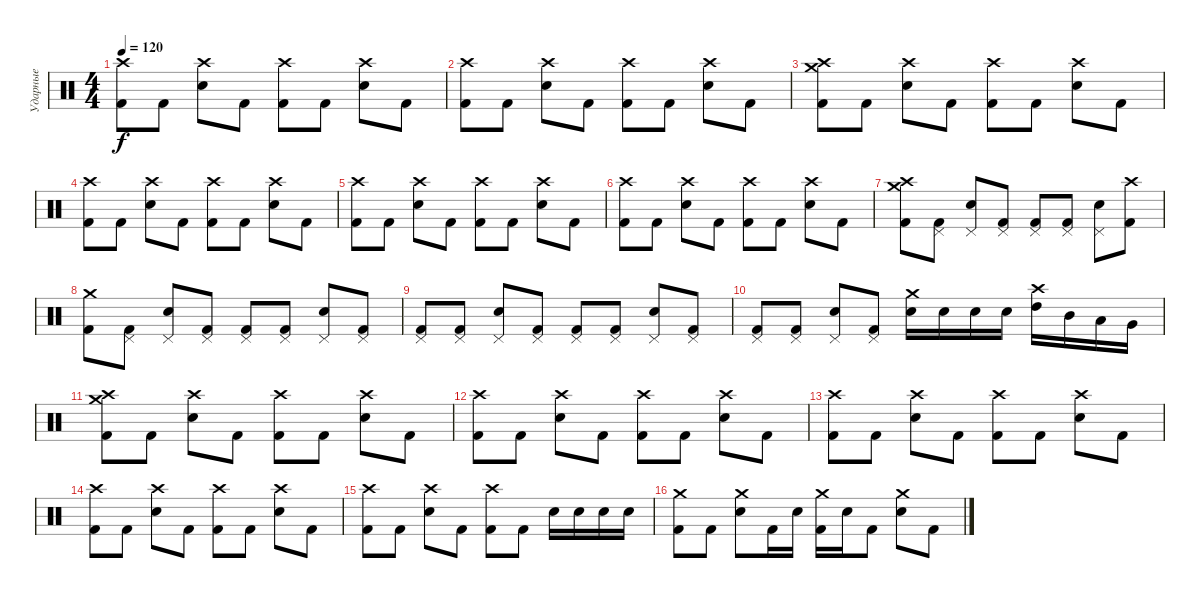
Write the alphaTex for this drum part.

\track ("Ударные" "Ударные") {instrument percussion}
\staff {score}
\articulation defaults
\ts (4 4)
\tempo 120
\clef neutral
\ks c
("Crash high (hit)" "Kick (hit) 2").8{dy f} "Kick (hit) 2".8 ("Crash high (hit)" "Electric Snare (hit)").8 "Kick (hit) 2".8 ("Crash high (hit)" "Kick (hit) 2").8 "Kick (hit) 2".8 ("Crash high (hit)" "Electric Snare (hit)").8 "Kick (hit) 2".8 |
("Crash high (hit)" "Kick (hit) 2").8 "Kick (hit) 2".8 ("Crash high (hit)" "Electric Snare (hit)").8 "Kick (hit) 2".8 ("Crash high (hit)" "Kick (hit) 2").8 "Kick (hit) 2".8 ("Crash high (hit)" "Electric Snare (hit)").8 "Kick (hit) 2".8 |
("Crash medium (hit)" "Crash high (hit)" "Kick (hit) 2").8 "Kick (hit) 2".8 ("Crash high (hit)" "Electric Snare (hit)").8 "Kick (hit) 2".8 ("Crash high (hit)" "Kick (hit) 2").8 "Kick (hit) 2".8 ("Crash high (hit)" "Electric Snare (hit)").8 "Kick (hit) 2".8 |
("Crash high (hit)" "Kick (hit) 2").8 "Kick (hit) 2".8 ("Crash high (hit)" "Electric Snare (hit)").8 "Kick (hit) 2".8 ("Crash high (hit)" "Kick (hit) 2").8 "Kick (hit) 2".8 ("Crash high (hit)" "Electric Snare (hit)").8 "Kick (hit) 2".8 |
("Crash high (hit)" "Kick (hit) 2").8 "Kick (hit) 2".8 ("Crash high (hit)" "Electric Snare (hit)").8 "Kick (hit) 2".8 ("Crash high (hit)" "Kick (hit) 2").8 "Kick (hit) 2".8 ("Crash high (hit)" "Electric Snare (hit)").8 "Kick (hit) 2".8 |
("Crash high (hit)" "Kick (hit) 2").8 "Kick (hit) 2".8 ("Crash high (hit)" "Electric Snare (hit)").8 "Kick (hit) 2".8 ("Crash high (hit)" "Kick (hit) 2").8 "Kick (hit) 2".8 ("Crash high (hit)" "Electric Snare (hit)").8 "Kick (hit) 2".8 |
("Crash medium (hit)" "Crash high (hit)" "Kick (hit) 2").8 ("Pedal Hi-Hat (hit)" "Kick (hit) 2").8 ("Pedal Hi-Hat (hit)" "Electric Snare (hit)").8 ("Pedal Hi-Hat (hit)" "Kick (hit) 2").8 ("Pedal Hi-Hat (hit)" "Kick (hit) 2").8 ("Pedal Hi-Hat (hit)" "Kick (hit) 2").8 ("Pedal Hi-Hat (hit)" "Electric Snare (hit)").8 ("Crash high (hit)" "Kick (hit) 2").8 |
("Crash medium (hit)" "Kick (hit) 2").8 ("Pedal Hi-Hat (hit)" "Kick (hit) 2").8 ("Pedal Hi-Hat (hit)" "Electric Snare (hit)").8 ("Pedal Hi-Hat (hit)" "Kick (hit) 2").8 ("Pedal Hi-Hat (hit)" "Kick (hit) 2").8 ("Pedal Hi-Hat (hit)" "Kick (hit) 2").8 ("Pedal Hi-Hat (hit)" "Electric Snare (hit)").8 ("Pedal Hi-Hat (hit)" "Kick (hit) 2").8 |
("Pedal Hi-Hat (hit)" "Kick (hit) 2").8 ("Pedal Hi-Hat (hit)" "Kick (hit) 2").8 ("Pedal Hi-Hat (hit)" "Electric Snare (hit)").8 ("Pedal Hi-Hat (hit)" "Kick (hit) 2").8 ("Pedal Hi-Hat (hit)" "Kick (hit) 2").8 ("Pedal Hi-Hat (hit)" "Kick (hit) 2").8 ("Pedal Hi-Hat (hit)" "Electric Snare (hit)").8 ("Pedal Hi-Hat (hit)" "Kick (hit) 2").8 |
("Pedal Hi-Hat (hit)" "Kick (hit) 2").8 ("Pedal Hi-Hat (hit)" "Kick (hit) 2").8 ("Pedal Hi-Hat (hit)" "Electric Snare (hit)").8 ("Pedal Hi-Hat (hit)" "Kick (hit) 2").8 ("Crash medium (hit)" "Electric Snare (hit)").16 "Electric Snare (hit)".16 "Electric Snare (hit)".16 "Electric Snare (hit)".16 ("Crash high (hit)" "High Tom (hit)").16 "Mid Tom (hit)".16 "Low Tom (hit)".16 "Very Low Tom (hit)".16 |
("Crash medium (hit)" "Crash high (hit)" "Kick (hit) 2").8 "Kick (hit) 2".8 ("Crash high (hit)" "Electric Snare (hit)").8 "Kick (hit) 2".8 ("Crash high (hit)" "Kick (hit) 2").8 "Kick (hit) 2".8 ("Crash high (hit)" "Electric Snare (hit)").8 "Kick (hit) 2".8 |
("Crash high (hit)" "Kick (hit) 2").8 "Kick (hit) 2".8 ("Crash high (hit)" "Electric Snare (hit)").8 "Kick (hit) 2".8 ("Crash high (hit)" "Kick (hit) 2").8 "Kick (hit) 2".8 ("Crash high (hit)" "Electric Snare (hit)").8 "Kick (hit) 2".8 |
("Crash high (hit)" "Kick (hit) 2").8 "Kick (hit) 2".8 ("Crash high (hit)" "Electric Snare (hit)").8 "Kick (hit) 2".8 ("Crash high (hit)" "Kick (hit) 2").8 "Kick (hit) 2".8 ("Crash high (hit)" "Electric Snare (hit)").8 "Kick (hit) 2".8 |
("Crash high (hit)" "Kick (hit) 2").8 "Kick (hit) 2".8 ("Crash high (hit)" "Electric Snare (hit)").8 "Kick (hit) 2".8 ("Crash high (hit)" "Kick (hit) 2").8 "Kick (hit) 2".8 ("Crash high (hit)" "Electric Snare (hit)").8 "Kick (hit) 2".8 |
("Crash high (hit)" "Kick (hit) 2").8 "Kick (hit) 2".8 ("Crash high (hit)" "Electric Snare (hit)").8 "Kick (hit) 2".8 ("Crash high (hit)" "Kick (hit) 2").8 "Kick (hit) 2".8 "Electric Snare (hit)".16 "Electric Snare (hit)".16 "Electric Snare (hit)".16 "Electric Snare (hit)".16 |
("Crash medium (hit)" "Kick (hit) 2").8 "Kick (hit) 2".8 ("Crash medium (hit)" "Electric Snare (hit)").8 "Kick (hit) 2".16 "Electric Snare (hit)".16 ("Crash medium (hit)" "Kick (hit) 2").16 "Electric Snare (hit)".16 "Kick (hit) 2".8 ("Crash medium (hit)" "Electric Snare (hit)").8 "Kick (hit) 2".8
